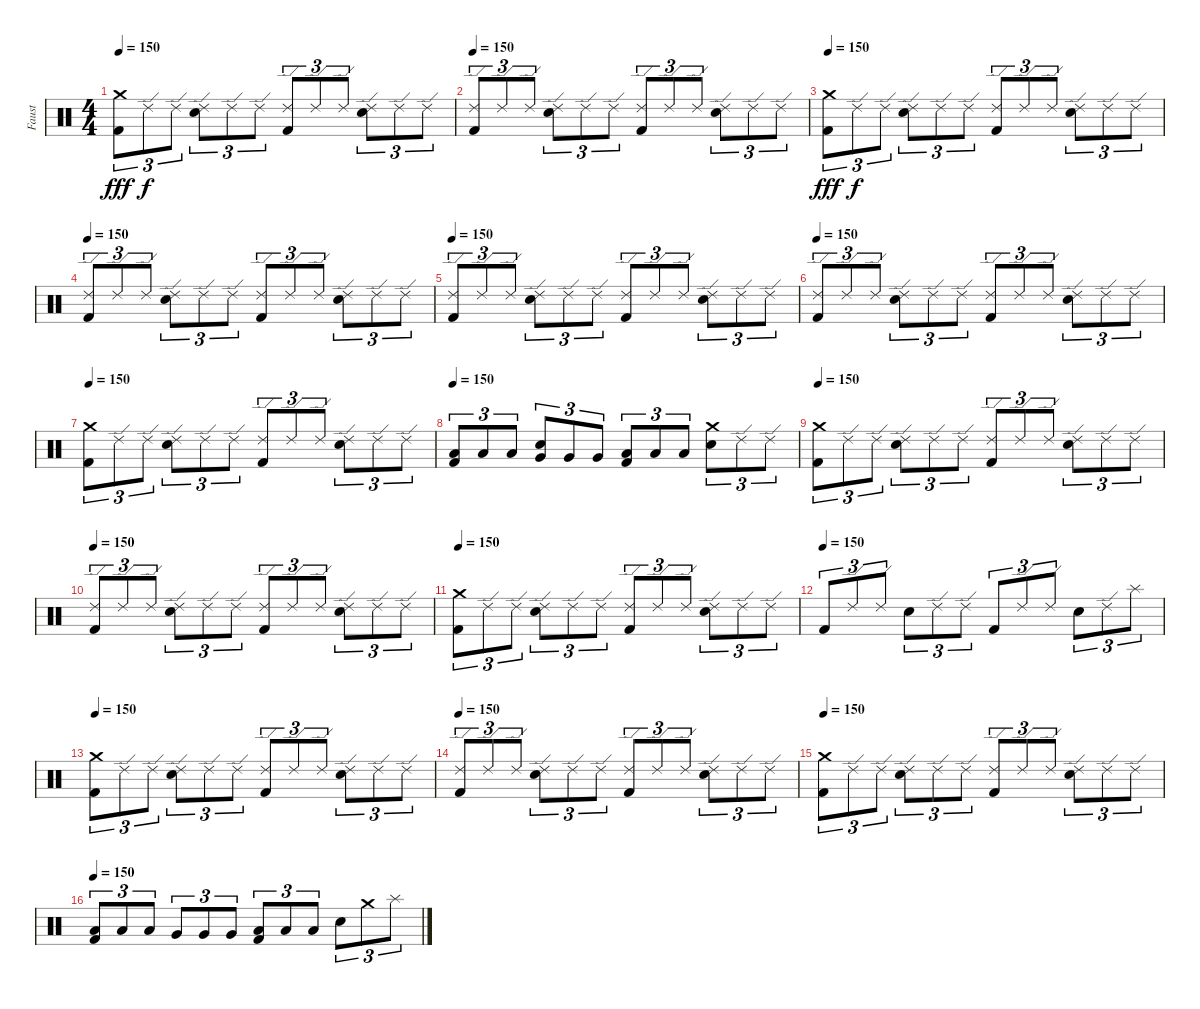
\track ("Faust" "Faust") {instrument percussion}
\staff {score}
\articulation defaults
\ts (4 4)
\tempo 150
\clef neutral
\ks c
("Crash medium (hit)" "Kick (hit) 2").8{tu (3 2) dy fff} "Ride (edge) 2".8{tu (3 2) dy f} "Ride (edge) 2".8{tu (3 2)} ("Ride (edge) 2" "Electric Snare (hit)").8{tu (3 2)} "Ride (edge) 2".8{tu (3 2)} "Ride (edge) 2".8{tu (3 2)} ("Ride (edge) 2" "Kick (hit) 2").8{tu (3 2)} "Ride (edge) 2".8{tu (3 2)} "Ride (edge) 2".8{tu (3 2)} ("Ride (edge) 2" "Electric Snare (hit)").8{tu (3 2)} "Ride (edge) 2".8{tu (3 2)} "Ride (edge) 2".8{tu (3 2)} |
\tempo 150
("Ride (edge) 2" "Kick (hit) 2").8{tu (3 2)} "Ride (edge) 2".8{tu (3 2)} "Ride (edge) 2".8{tu (3 2)} ("Ride (edge) 2" "Electric Snare (hit)").8{tu (3 2)} "Ride (edge) 2".8{tu (3 2)} "Ride (edge) 2".8{tu (3 2)} ("Ride (edge) 2" "Kick (hit) 2").8{tu (3 2)} "Ride (edge) 2".8{tu (3 2)} "Ride (edge) 2".8{tu (3 2)} ("Ride (edge) 2" "Electric Snare (hit)").8{tu (3 2)} "Ride (edge) 2".8{tu (3 2)} "Ride (edge) 2".8{tu (3 2)} |
\tempo 150
("Crash medium (hit)" "Kick (hit) 2").8{tu (3 2) dy fff} "Ride (edge) 2".8{tu (3 2) dy f} "Ride (edge) 2".8{tu (3 2)} ("Ride (edge) 2" "Electric Snare (hit)").8{tu (3 2)} "Ride (edge) 2".8{tu (3 2)} "Ride (edge) 2".8{tu (3 2)} ("Ride (edge) 2" "Kick (hit) 2").8{tu (3 2)} "Ride (edge) 2".8{tu (3 2)} "Ride (edge) 2".8{tu (3 2)} ("Ride (edge) 2" "Electric Snare (hit)").8{tu (3 2)} "Ride (edge) 2".8{tu (3 2)} "Ride (edge) 2".8{tu (3 2)} |
\tempo 150
("Ride (edge) 2" "Kick (hit) 2").8{tu (3 2)} "Ride (edge) 2".8{tu (3 2)} "Ride (edge) 2".8{tu (3 2)} ("Ride (edge) 2" "Electric Snare (hit)").8{tu (3 2)} "Ride (edge) 2".8{tu (3 2)} "Ride (edge) 2".8{tu (3 2)} ("Ride (edge) 2" "Kick (hit) 2").8{tu (3 2)} "Ride (edge) 2".8{tu (3 2)} "Ride (edge) 2".8{tu (3 2)} ("Ride (edge) 2" "Electric Snare (hit)").8{tu (3 2)} "Ride (edge) 2".8{tu (3 2)} "Ride (edge) 2".8{tu (3 2)} |
\tempo 150
("Ride (edge) 2" "Kick (hit) 2").8{tu (3 2)} "Ride (edge) 2".8{tu (3 2)} "Ride (edge) 2".8{tu (3 2)} ("Ride (edge) 2" "Electric Snare (hit)").8{tu (3 2)} "Ride (edge) 2".8{tu (3 2)} "Ride (edge) 2".8{tu (3 2)} ("Ride (edge) 2" "Kick (hit) 2").8{tu (3 2)} "Ride (edge) 2".8{tu (3 2)} "Ride (edge) 2".8{tu (3 2)} ("Ride (edge) 2" "Electric Snare (hit)").8{tu (3 2)} "Ride (edge) 2".8{tu (3 2)} "Ride (edge) 2".8{tu (3 2)} |
\tempo 150
("Ride (edge) 2" "Kick (hit) 2").8{tu (3 2)} "Ride (edge) 2".8{tu (3 2)} "Ride (edge) 2".8{tu (3 2)} ("Ride (edge) 2" "Electric Snare (hit)").8{tu (3 2)} "Ride (edge) 2".8{tu (3 2)} "Ride (edge) 2".8{tu (3 2)} ("Ride (edge) 2" "Kick (hit) 2").8{tu (3 2)} "Ride (edge) 2".8{tu (3 2)} "Ride (edge) 2".8{tu (3 2)} ("Ride (edge) 2" "Electric Snare (hit)").8{tu (3 2)} "Ride (edge) 2".8{tu (3 2)} "Ride (edge) 2".8{tu (3 2)} |
\tempo 150
("Crash medium (hit)" "Kick (hit) 2").8{tu (3 2)} "Ride (edge) 2".8{tu (3 2)} "Ride (edge) 2".8{tu (3 2)} ("Ride (edge) 2" "Electric Snare (hit)").8{tu (3 2)} "Ride (edge) 2".8{tu (3 2)} "Ride (edge) 2".8{tu (3 2)} ("Ride (edge) 2" "Kick (hit) 2").8{tu (3 2)} "Ride (edge) 2".8{tu (3 2)} "Ride (edge) 2".8{tu (3 2)} ("Ride (edge) 2" "Electric Snare (hit)").8{tu (3 2)} "Ride (edge) 2".8{tu (3 2)} "Ride (edge) 2".8{tu (3 2)} |
\tempo 150
("Low Tom (hit)" "Kick (hit) 2").8{tu (3 2)} "Low Tom (hit)".8{tu (3 2)} "Low Tom (hit)".8{tu (3 2)} ("Very Low Tom (hit)" "Electric Snare (hit)").8{tu (3 2)} "Very Low Tom (hit)".8{tu (3 2)} "Very Low Tom (hit)".8{tu (3 2)} ("Low Floor Tom (hit)" "Kick (hit) 2").8{tu (3 2)} "Low Floor Tom (hit)".8{tu (3 2)} "Low Floor Tom (hit)".8{tu (3 2)} ("Crash medium (hit)" "Electric Snare (hit)").8{tu (3 2)} "Ride (edge) 2".8{tu (3 2)} "Ride (edge) 2".8{tu (3 2)} |
\tempo 150
("Crash medium (hit)" "Kick (hit) 2").8{tu (3 2)} "Ride (edge) 2".8{tu (3 2)} "Ride (edge) 2".8{tu (3 2)} ("Ride (edge) 2" "Electric Snare (hit)").8{tu (3 2)} "Ride (edge) 2".8{tu (3 2)} "Ride (edge) 2".8{tu (3 2)} ("Ride (edge) 2" "Kick (hit) 2").8{tu (3 2)} "Ride (edge) 2".8{tu (3 2)} "Ride (edge) 2".8{tu (3 2)} ("Ride (edge) 2" "Electric Snare (hit)").8{tu (3 2)} "Ride (edge) 2".8{tu (3 2)} "Ride (edge) 2".8{tu (3 2)} |
\tempo 150
("Ride (edge) 2" "Kick (hit) 2").8{tu (3 2)} "Ride (edge) 2".8{tu (3 2)} "Ride (edge) 2".8{tu (3 2)} ("Ride (edge) 2" "Electric Snare (hit)").8{tu (3 2)} "Ride (edge) 2".8{tu (3 2)} "Ride (edge) 2".8{tu (3 2)} ("Ride (edge) 2" "Kick (hit) 2").8{tu (3 2)} "Ride (edge) 2".8{tu (3 2)} "Ride (edge) 2".8{tu (3 2)} ("Ride (edge) 2" "Electric Snare (hit)").8{tu (3 2)} "Ride (edge) 2".8{tu (3 2)} "Ride (edge) 2".8{tu (3 2)} |
\tempo 150
("Crash medium (hit)" "Kick (hit) 2").8{tu (3 2)} "Ride (edge) 2".8{tu (3 2)} "Ride (edge) 2".8{tu (3 2)} ("Ride (edge) 2" "Electric Snare (hit)").8{tu (3 2)} "Ride (edge) 2".8{tu (3 2)} "Ride (edge) 2".8{tu (3 2)} ("Ride (edge) 2" "Kick (hit) 2").8{tu (3 2)} "Ride (edge) 2".8{tu (3 2)} "Ride (edge) 2".8{tu (3 2)} ("Ride (edge) 2" "Electric Snare (hit)").8{tu (3 2)} "Ride (edge) 2".8{tu (3 2)} "Ride (edge) 2".8{tu (3 2)} |
\tempo (150)
"Kick (hit) 2".8{tu (3 2)} "Ride (edge) 2".8{tu (3 2)} "Ride (edge) 2".8{tu (3 2)} "Electric Snare (hit)".8{tu (3 2)} "Ride (edge) 2".8{tu (3 2)} "Ride (edge) 2".8{tu (3 2)} "Kick (hit) 2".8{tu (3 2)} "Ride (edge) 2".8{tu (3 2)} "Ride (edge) 2".8{tu (3 2)} "Electric Snare (hit)".8{tu (3 2)} "Ride (edge) 2".8{tu (3 2)} "Splash (hit)".8{tu (3 2)} |
\tempo 150
("Crash medium (hit)" "Kick (hit) 2").8{tu (3 2)} "Ride (edge) 2".8{tu (3 2)} "Ride (edge) 2".8{tu (3 2)} ("Ride (edge) 2" "Electric Snare (hit)").8{tu (3 2)} "Ride (edge) 2".8{tu (3 2)} "Ride (edge) 2".8{tu (3 2)} ("Ride (edge) 2" "Kick (hit) 2").8{tu (3 2)} "Ride (edge) 2".8{tu (3 2)} "Ride (edge) 2".8{tu (3 2)} ("Ride (edge) 2" "Electric Snare (hit)").8{tu (3 2)} "Ride (edge) 2".8{tu (3 2)} "Ride (edge) 2".8{tu (3 2)} |
\tempo 150
("Ride (edge) 2" "Kick (hit) 2").8{tu (3 2)} "Ride (edge) 2".8{tu (3 2)} "Ride (edge) 2".8{tu (3 2)} ("Ride (edge) 2" "Electric Snare (hit)").8{tu (3 2)} "Ride (edge) 2".8{tu (3 2)} "Ride (edge) 2".8{tu (3 2)} ("Ride (edge) 2" "Kick (hit) 2").8{tu (3 2)} "Ride (edge) 2".8{tu (3 2)} "Ride (edge) 2".8{tu (3 2)} ("Ride (edge) 2" "Electric Snare (hit)").8{tu (3 2)} "Ride (edge) 2".8{tu (3 2)} "Ride (edge) 2".8{tu (3 2)} |
\tempo 150
("Crash medium (hit)" "Kick (hit) 2").8{tu (3 2)} "Ride (edge) 2".8{tu (3 2)} "Ride (edge) 2".8{tu (3 2)} ("Ride (edge) 2" "Electric Snare (hit)").8{tu (3 2)} "Ride (edge) 2".8{tu (3 2)} "Ride (edge) 2".8{tu (3 2)} ("Ride (edge) 2" "Kick (hit) 2").8{tu (3 2)} "Ride (edge) 2".8{tu (3 2)} "Ride (edge) 2".8{tu (3 2)} ("Ride (edge) 2" "Electric Snare (hit)").8{tu (3 2)} "Ride (edge) 2".8{tu (3 2)} "Ride (edge) 2".8{tu (3 2)} |
\tempo 150
("Low Tom (hit)" "Kick (hit) 2").8{tu (3 2)} "Low Tom (hit)".8{tu (3 2)} "Low Tom (hit)".8{tu (3 2)} "Very Low Tom (hit)".8{tu (3 2)} "Very Low Tom (hit)".8{tu (3 2)} "Very Low Tom (hit)".8{tu (3 2)} ("Low Floor Tom (hit)" "Kick (hit) 2").8{tu (3 2)} "Low Floor Tom (hit)".8{tu (3 2)} "Low Floor Tom (hit)".8{tu (3 2)} "Electric Snare (hit)".8{tu (3 2)} "Crash medium (hit)".8{tu (3 2)} "Splash (hit)".8{tu (3 2)}
